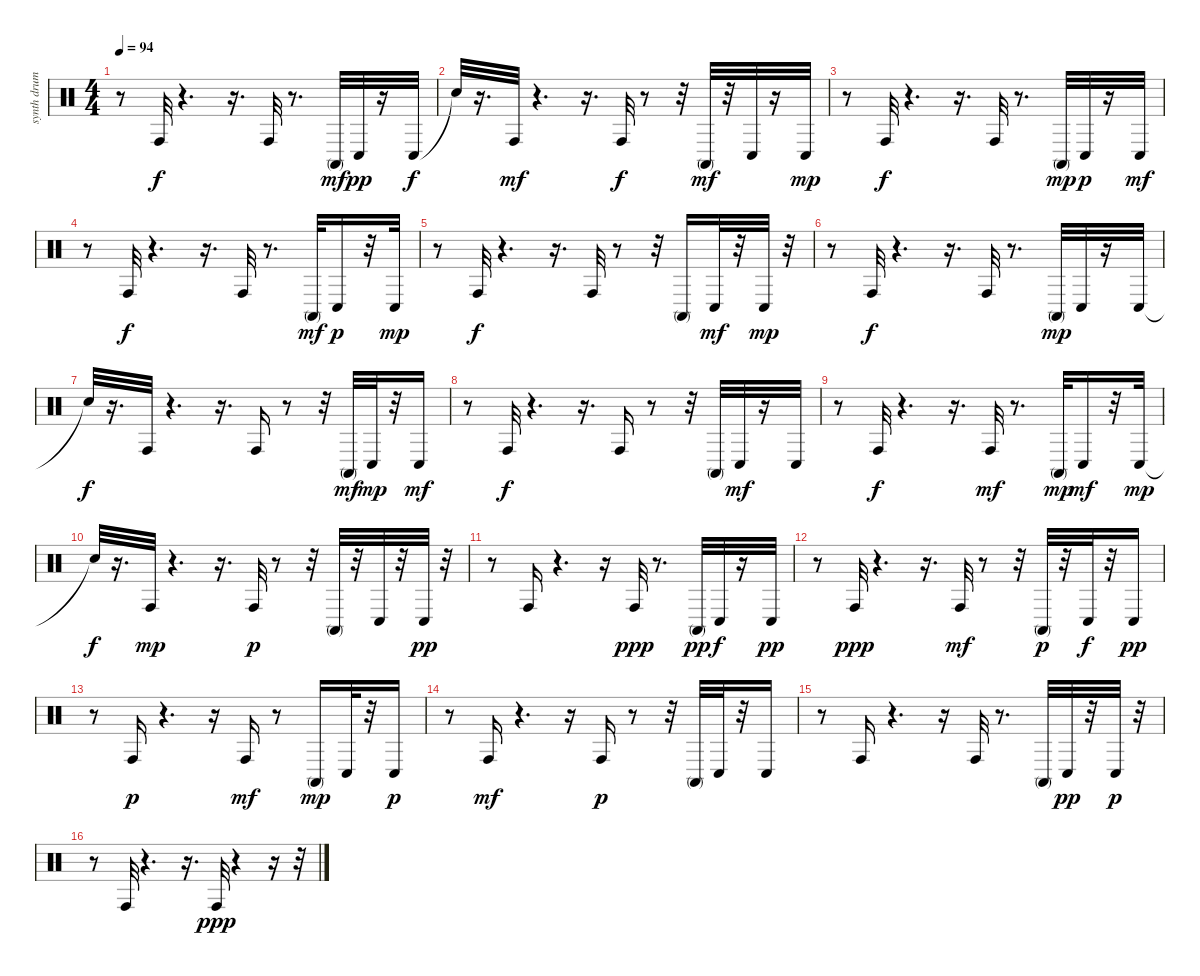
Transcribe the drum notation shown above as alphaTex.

\track ("synth drum" "synth drum") {instrument percussion}
\staff {score}
\articulation defaults
\ts (4 4)
\tempo 94
\clef neutral
\ks c
r.8{dy mp} "Conga high (hit)".32{dy f} r.4{d} r.16{d} "Conga high (hit)".32 r.8{d} "Conga high (mute)".32{dy mf} "Conga low (hit)".32{dy pp} r.16 "Conga low (hit)".32{dy f} |
"Snare (hit)"{t}.32 r.16{d} "Conga high (hit)".32{dy mf} r.4{d} r.16{d} "Conga high (hit)".32{dy f} r.8 r.32 "Conga high (mute)".32{dy mf} r.32 "Conga low (hit)".32 r.16 "Conga low (hit)".32{dy mp} |
r.8 "Conga high (hit)".32{dy f} r.4{d} r.16{d} "Conga high (hit)".32 r.8{d} "Conga high (mute)".32{dy mp} "Conga low (hit)".32{dy p} r.16 "Conga low (hit)".32{dy mf} |
r.8 "Conga high (hit)".32{dy f} r.4{d} r.16{d} "Conga high (hit)".32 r.8{d} "Conga high (mute)".32{dy mf} "Conga low (hit)".16{dy p} r.32 "Conga low (hit)".32{dy mp} |
r.8 "Conga high (hit)".32{dy f} r.4{d} r.16{d} "Conga high (hit)".32 r.8 r.32 "Conga high (mute)".16 "Conga low (hit)".32{dy mf} r.32 "Conga low (hit)".32{dy mp} r.32 |
r.8 "Conga high (hit)".32{dy f} r.4{d} r.16{d} "Conga high (hit)".32 r.8{d} "Conga high (mute)".32{dy mp} "Conga low (hit)".32 r.16 "Conga low (hit)".32 |
"Snare (hit)"{t}.32{dy f} r.16{d} "Conga high (hit)".32 r.4{d} r.16{d} "Conga high (hit)".16 r.8 r.32 "Conga high (mute)".32{dy mf} "Conga low (hit)".32{dy mp} r.32 "Conga low (hit)".16{dy mf} |
r.8 "Conga high (hit)".32{dy f} r.4{d} r.16{d} "Conga high (hit)".16 r.8 r.32 "Conga high (mute)".32 "Conga low (hit)".32{dy mf} r.16 "Conga low (hit)".32 |
r.8 "Conga high (hit)".32{dy f} r.4{d} r.16{d} "Conga high (hit)".32{dy mf} r.8{d} "Conga high (mute)".32{dy mp} "Conga low (hit)".16{dy mf} r.32 "Conga low (hit)".32{dy mp} |
"Snare (hit)"{t}.32{dy f} r.16{d} "Conga high (hit)".32{dy mp} r.4{d} r.16{d} "Conga high (hit)".32{dy p} r.8 r.32 "Conga high (mute)".32 r.32 "Conga low (hit)".32 r.32 "Conga low (hit)".32{dy pp} r.32 |
r.8 "Conga high (hit)".16 r.4{d} r.16 "Conga high (hit)".32{dy ppp} r.8{d} "Conga high (mute)".32{dy pp} "Conga low (hit)".32{dy f} r.16 "Conga low (hit)".32{dy pp} |
r.8 "Conga high (hit)".32{dy ppp} r.4{d} r.16{d} "Conga high (hit)".32{dy mf} r.8 r.32 "Conga high (mute)".32{dy p} r.32 "Conga low (hit)".32{dy f} r.32 "Conga low (hit)".16{dy pp} |
r.8 "Conga high (hit)".16{dy p} r.4{d} r.16 "Conga high (hit)".16{dy mf} r.8 "Conga high (mute)".16{dy mp} "Conga low (hit)".32 r.32 "Conga low (hit)".16{dy p} |
r.8 "Conga high (hit)".16{dy mf} r.4{d} r.16 "Conga high (hit)".16{dy p} r.8 r.32 "Conga high (mute)".32 "Conga low (hit)".32 r.32 "Conga low (hit)".16 |
r.8 "Conga high (hit)".16 r.4{d} r.16 "Conga high (hit)".32 r.8{d} "Conga high (mute)".32 "Conga low (hit)".32{dy pp} r.32 "Conga low (hit)".32{dy p} r.32 |
r.8 "Conga high (hit)".32 r.4{d} r.16{d} "Conga high (hit)".32{dy ppp} r.4 r.16 r.32
